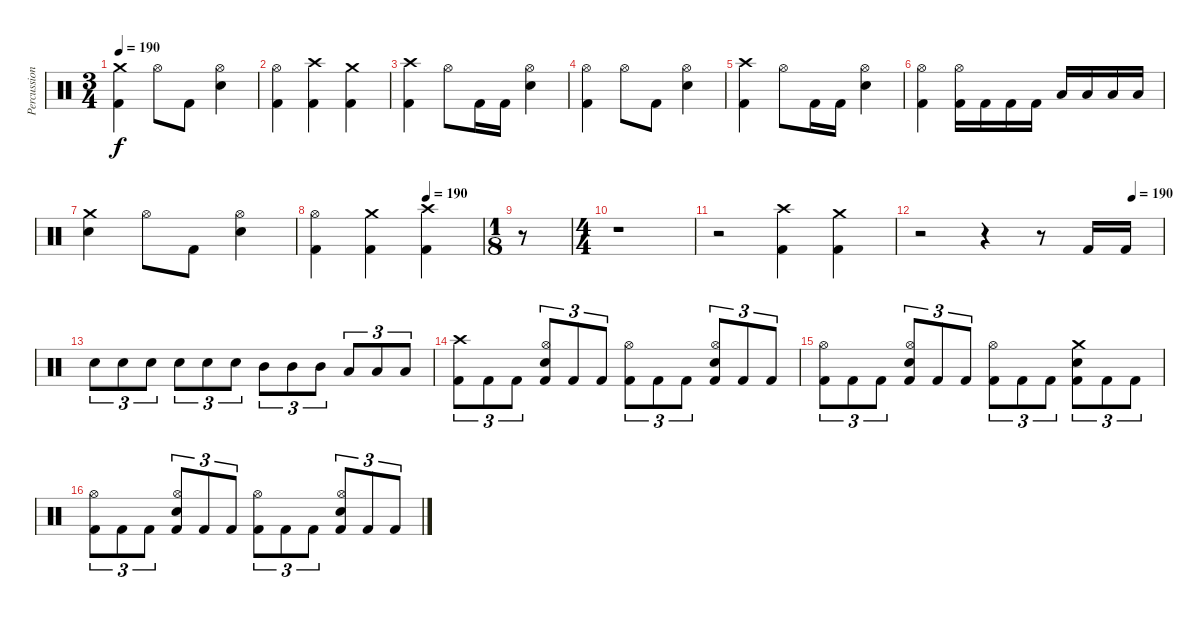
\track ("Percussion" "Percussion") {instrument percussion}
\staff {score}
\articulation defaults
\ts (3 4)
\tempo 190
\clef neutral
\ks c
("Crash medium (hit)" "Kick (hit) 2").4{dy f} "Hi-Hat (open)".8 "Kick (hit) 2".8 ("Hi-Hat (open)" "Electric Snare (hit)").4 |
("Hi-Hat (open)" "Kick (hit) 2").4 ("Crash high (hit)" "Kick (hit) 2").4 ("Crash medium (hit)" "Kick (hit) 2").4 |
("Crash high (hit)" "Kick (hit) 2").4 "Hi-Hat (open)".8 "Kick (hit) 2".16 "Kick (hit) 2".16 ("Hi-Hat (open)" "Electric Snare (hit)").4 |
("Hi-Hat (open)" "Kick (hit) 2").4 "Hi-Hat (open)".8 "Kick (hit) 2".8 ("Hi-Hat (open)" "Electric Snare (hit)").4 |
("Crash high (hit)" "Kick (hit) 2").4 "Hi-Hat (open)".8 "Kick (hit) 2".16 "Kick (hit) 2".16 ("Hi-Hat (open)" "Electric Snare (hit)").4 |
("Hi-Hat (open)" "Kick (hit) 2").4 ("Hi-Hat (open)" "Kick (hit) 2").16 "Kick (hit) 2".16 "Kick (hit) 2".16 "Kick (hit) 2".16 "Low Tom (hit)".16 "Low Tom (hit)".16 "Low Tom (hit)".16 "Low Tom (hit)".16 |
("Crash medium (hit)" "Electric Snare (hit)").4 "Hi-Hat (open)".8 "Kick (hit) 2".8 ("Hi-Hat (open)" "Electric Snare (hit)").4 |
\tempo (190 0.6666666666666666)
("Hi-Hat (open)" "Kick (hit) 2").4 ("Crash medium (hit)" "Kick (hit) 2").4 ("Crash high (hit)" "Kick (hit) 2").4 |
\ts (1 8)
r.8 |
\ts (4 4)
r.1 |
r.2 ("Crash high (hit)" "Kick (hit) 2").4 ("Crash medium (hit)" "Kick (hit) 2").4 |
\tempo (190 0.875)
r.2{volume 0} r.4 r.8 "Kick (hit) 2".16{volume 13 balance 8} "Kick (hit) 2".16 |
"Electric Snare (hit)".8{tu (3 2)} "Electric Snare (hit)".8{tu (3 2)} "Electric Snare (hit)".8{tu (3 2)} "Electric Snare (hit)".8{tu (3 2)} "Electric Snare (hit)".8{tu (3 2)} "Electric Snare (hit)".8{tu (3 2)} "Mid Tom (hit)".8{tu (3 2)} "Mid Tom (hit)".8{tu (3 2)} "Mid Tom (hit)".8{tu (3 2)} "Low Tom (hit)".8{tu (3 2)} "Low Tom (hit)".8{tu (3 2)} "Low Tom (hit)".8{tu (3 2)} |
("Crash high (hit)" "Kick (hit) 2").8{tu (3 2)} "Kick (hit) 2".8{tu (3 2)} "Kick (hit) 2".8{tu (3 2)} ("Hi-Hat (open)" "Electric Snare (hit)" "Kick (hit) 2").8{tu (3 2)} "Kick (hit) 2".8{tu (3 2)} "Kick (hit) 2".8{tu (3 2)} ("Hi-Hat (open)" "Kick (hit) 2").8{tu (3 2)} "Kick (hit) 2".8{tu (3 2)} "Kick (hit) 2".8{tu (3 2)} ("Hi-Hat (open)" "Electric Snare (hit)" "Kick (hit) 2").8{tu (3 2)} "Kick (hit) 2".8{tu (3 2)} "Kick (hit) 2".8{tu (3 2)} |
("Hi-Hat (open)" "Kick (hit) 2").8{tu (3 2)} "Kick (hit) 2".8{tu (3 2)} "Kick (hit) 2".8{tu (3 2)} ("Hi-Hat (open)" "Electric Snare (hit)" "Kick (hit) 2").8{tu (3 2)} "Kick (hit) 2".8{tu (3 2)} "Kick (hit) 2".8{tu (3 2)} ("Hi-Hat (open)" "Kick (hit) 2").8{tu (3 2)} "Kick (hit) 2".8{tu (3 2)} "Kick (hit) 2".8{tu (3 2)} ("Crash medium (hit)" "Electric Snare (hit)" "Kick (hit) 2").8{tu (3 2)} "Kick (hit) 2".8{tu (3 2)} "Kick (hit) 2".8{tu (3 2)} |
("Hi-Hat (open)" "Kick (hit) 2").8{tu (3 2)} "Kick (hit) 2".8{tu (3 2)} "Kick (hit) 2".8{tu (3 2)} ("Hi-Hat (open)" "Electric Snare (hit)" "Kick (hit) 2").8{tu (3 2)} "Kick (hit) 2".8{tu (3 2)} "Kick (hit) 2".8{tu (3 2)} ("Hi-Hat (open)" "Kick (hit) 2").8{tu (3 2)} "Kick (hit) 2".8{tu (3 2)} "Kick (hit) 2".8{tu (3 2)} ("Hi-Hat (open)" "Electric Snare (hit)" "Kick (hit) 2").8{tu (3 2)} "Kick (hit) 2".8{tu (3 2)} "Kick (hit) 2".8{tu (3 2)}
